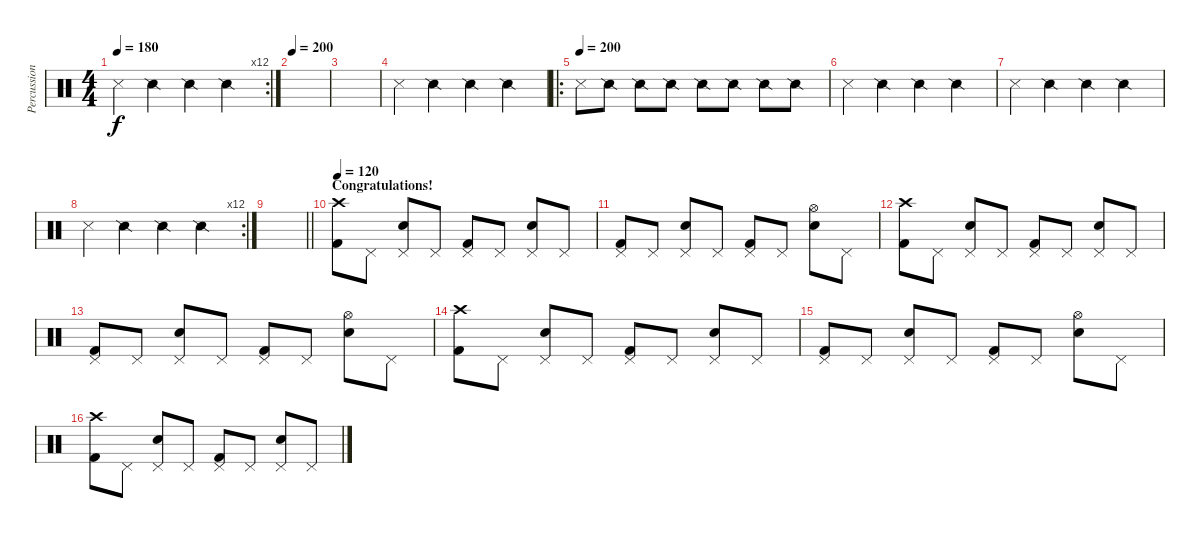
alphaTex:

\track ("Percussion" "Percussion") {instrument percussion}
\staff {score}
\articulation defaults
\rc 12
\ts (4 4)
\tempo 180
\clef neutral
\ks c "Metronome (hit)".4{dy f} "Snare (side stick) 2".4 "Snare (side stick) 2".4 "Snare (side stick) 2".4
|
\tempo 200
|
|
"Metronome (hit)".4 "Snare (side stick) 2".4 "Snare (side stick) 2".4 "Snare (side stick) 2".4 |
\ro
\tempo (200)
"Metronome (hit)".8 "Snare (side stick) 2".8 "Snare (side stick) 2".8 "Snare (side stick) 2".8 "Snare (side stick) 2".8 "Snare (side stick) 2".8 "Snare (side stick) 2".8 "Snare (side stick) 2".8 |
"Metronome (hit)".4 "Snare (side stick) 2".4 "Snare (side stick) 2".4 "Snare (side stick) 2".4 |
"Metronome (hit)".4 "Snare (side stick) 2".4 "Snare (side stick) 2".4 "Snare (side stick) 2".4 |
\rc 12 "Metronome (hit)".4 "Snare (side stick) 2".4 "Snare (side stick) 2".4 "Snare (side stick) 2".4
|
\barLineRight lightlight
|
\section ("" "Congratulations!")
\tempo 120
("Crash high (hit)" "Kick (hit) 2").8 "Pedal Hi-Hat (hit)".8 ("Pedal Hi-Hat (hit)" "Electric Snare (hit)").8 "Pedal Hi-Hat (hit)".8 ("Pedal Hi-Hat (hit)" "Kick (hit) 2").8 "Pedal Hi-Hat (hit)".8 ("Pedal Hi-Hat (hit)" "Electric Snare (hit)").8 "Pedal Hi-Hat (hit)".8 |
("Pedal Hi-Hat (hit)" "Kick (hit) 2").8 "Pedal Hi-Hat (hit)".8 ("Pedal Hi-Hat (hit)" "Electric Snare (hit)").8 "Pedal Hi-Hat (hit)".8 ("Pedal Hi-Hat (hit)" "Kick (hit) 2").8 "Pedal Hi-Hat (hit)".8 ("Hi-Hat (open)" "Electric Snare (hit)").8 "Pedal Hi-Hat (hit)".8 |
("Crash high (hit)" "Kick (hit) 2").8 "Pedal Hi-Hat (hit)".8 ("Pedal Hi-Hat (hit)" "Electric Snare (hit)").8 "Pedal Hi-Hat (hit)".8 ("Pedal Hi-Hat (hit)" "Kick (hit) 2").8 "Pedal Hi-Hat (hit)".8 ("Pedal Hi-Hat (hit)" "Electric Snare (hit)").8 "Pedal Hi-Hat (hit)".8 |
("Pedal Hi-Hat (hit)" "Kick (hit) 2").8 "Pedal Hi-Hat (hit)".8 ("Pedal Hi-Hat (hit)" "Electric Snare (hit)").8 "Pedal Hi-Hat (hit)".8 ("Pedal Hi-Hat (hit)" "Kick (hit) 2").8 "Pedal Hi-Hat (hit)".8 ("Hi-Hat (open)" "Electric Snare (hit)").8 "Pedal Hi-Hat (hit)".8 |
("Crash high (hit)" "Kick (hit) 2").8 "Pedal Hi-Hat (hit)".8 ("Pedal Hi-Hat (hit)" "Electric Snare (hit)").8 "Pedal Hi-Hat (hit)".8 ("Pedal Hi-Hat (hit)" "Kick (hit) 2").8 "Pedal Hi-Hat (hit)".8 ("Pedal Hi-Hat (hit)" "Electric Snare (hit)").8 "Pedal Hi-Hat (hit)".8 |
("Pedal Hi-Hat (hit)" "Kick (hit) 2").8 "Pedal Hi-Hat (hit)".8 ("Pedal Hi-Hat (hit)" "Electric Snare (hit)").8 "Pedal Hi-Hat (hit)".8 ("Pedal Hi-Hat (hit)" "Kick (hit) 2").8 "Pedal Hi-Hat (hit)".8 ("Hi-Hat (open)" "Electric Snare (hit)").8 "Pedal Hi-Hat (hit)".8 |
("Crash high (hit)" "Kick (hit) 2").8 "Pedal Hi-Hat (hit)".8 ("Pedal Hi-Hat (hit)" "Electric Snare (hit)").8 "Pedal Hi-Hat (hit)".8 ("Pedal Hi-Hat (hit)" "Kick (hit) 2").8 "Pedal Hi-Hat (hit)".8 ("Pedal Hi-Hat (hit)" "Electric Snare (hit)").8 "Pedal Hi-Hat (hit)".8
